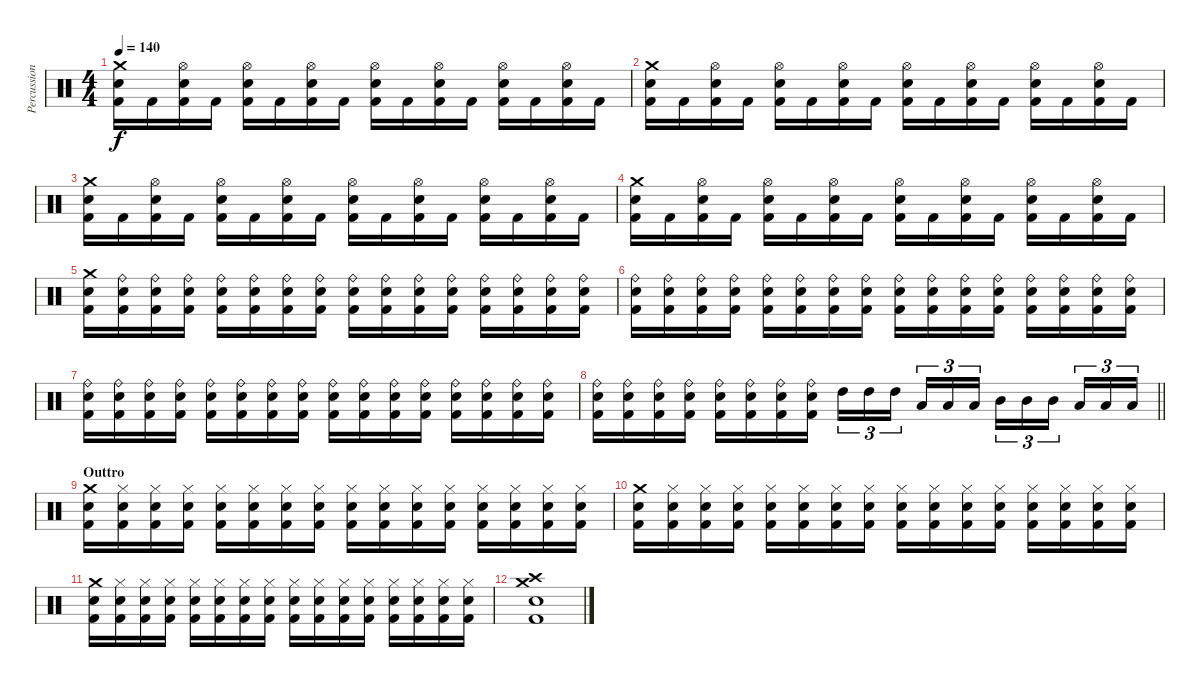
\track ("Percussion" "Percussion") {instrument percussion}
\staff {score}
\articulation defaults
\ts (4 4)
\tempo 140
\clef neutral
\ks c
("Crash medium (hit)" "Electric Snare (hit)" "Kick (hit) 2").16{dy f} "Kick (hit) 2".16 ("Hi-Hat (open)" "Electric Snare (hit)" "Kick (hit) 2").16 "Kick (hit) 2".16 ("Hi-Hat (open)" "Electric Snare (hit)" "Kick (hit) 2").16 "Kick (hit) 2".16 ("Hi-Hat (open)" "Electric Snare (hit)" "Kick (hit) 2").16 "Kick (hit) 2".16 ("Hi-Hat (open)" "Electric Snare (hit)" "Kick (hit) 2").16 "Kick (hit) 2".16 ("Hi-Hat (open)" "Electric Snare (hit)" "Kick (hit) 2").16 "Kick (hit) 2".16 ("Hi-Hat (open)" "Electric Snare (hit)" "Kick (hit) 2").16 "Kick (hit) 2".16 ("Hi-Hat (open)" "Electric Snare (hit)" "Kick (hit) 2").16 "Kick (hit) 2".16 |
("Crash medium (hit)" "Electric Snare (hit)" "Kick (hit) 2").16 "Kick (hit) 2".16 ("Hi-Hat (open)" "Electric Snare (hit)" "Kick (hit) 2").16 "Kick (hit) 2".16 ("Hi-Hat (open)" "Electric Snare (hit)" "Kick (hit) 2").16 "Kick (hit) 2".16 ("Hi-Hat (open)" "Electric Snare (hit)" "Kick (hit) 2").16 "Kick (hit) 2".16 ("Hi-Hat (open)" "Electric Snare (hit)" "Kick (hit) 2").16 "Kick (hit) 2".16 ("Hi-Hat (open)" "Electric Snare (hit)" "Kick (hit) 2").16 "Kick (hit) 2".16 ("Hi-Hat (open)" "Electric Snare (hit)" "Kick (hit) 2").16 "Kick (hit) 2".16 ("Hi-Hat (open)" "Electric Snare (hit)" "Kick (hit) 2").16 "Kick (hit) 2".16 |
("Crash medium (hit)" "Electric Snare (hit)" "Kick (hit) 2").16 "Kick (hit) 2".16 ("Hi-Hat (open)" "Electric Snare (hit)" "Kick (hit) 2").16 "Kick (hit) 2".16 ("Hi-Hat (open)" "Electric Snare (hit)" "Kick (hit) 2").16 "Kick (hit) 2".16 ("Hi-Hat (open)" "Electric Snare (hit)" "Kick (hit) 2").16 "Kick (hit) 2".16 ("Hi-Hat (open)" "Electric Snare (hit)" "Kick (hit) 2").16 "Kick (hit) 2".16 ("Hi-Hat (open)" "Electric Snare (hit)" "Kick (hit) 2").16 "Kick (hit) 2".16 ("Hi-Hat (open)" "Electric Snare (hit)" "Kick (hit) 2").16 "Kick (hit) 2".16 ("Hi-Hat (open)" "Electric Snare (hit)" "Kick (hit) 2").16 "Kick (hit) 2".16 |
("Crash medium (hit)" "Electric Snare (hit)" "Kick (hit) 2").16 "Kick (hit) 2".16 ("Hi-Hat (open)" "Electric Snare (hit)" "Kick (hit) 2").16 "Kick (hit) 2".16 ("Hi-Hat (open)" "Electric Snare (hit)" "Kick (hit) 2").16 "Kick (hit) 2".16 ("Hi-Hat (open)" "Electric Snare (hit)" "Kick (hit) 2").16 "Kick (hit) 2".16 ("Hi-Hat (open)" "Electric Snare (hit)" "Kick (hit) 2").16 "Kick (hit) 2".16 ("Hi-Hat (open)" "Electric Snare (hit)" "Kick (hit) 2").16 "Kick (hit) 2".16 ("Hi-Hat (open)" "Electric Snare (hit)" "Kick (hit) 2").16 "Kick (hit) 2".16 ("Hi-Hat (open)" "Electric Snare (hit)" "Kick (hit) 2").16 "Kick (hit) 2".16 |
("Crash medium (hit)" "Electric Snare (hit)" "Kick (hit) 2").16 ("Ride (bell)" "Electric Snare (hit)" "Kick (hit) 2").16 ("Ride (bell)" "Electric Snare (hit)" "Kick (hit) 2").16 ("Ride (bell)" "Electric Snare (hit)" "Kick (hit) 2").16 ("Ride (bell)" "Electric Snare (hit)" "Kick (hit) 2").16 ("Ride (bell)" "Electric Snare (hit)" "Kick (hit) 2").16 ("Ride (bell)" "Electric Snare (hit)" "Kick (hit) 2").16 ("Ride (bell)" "Electric Snare (hit)" "Kick (hit) 2").16 ("Ride (bell)" "Electric Snare (hit)" "Kick (hit) 2").16 ("Ride (bell)" "Electric Snare (hit)" "Kick (hit) 2").16 ("Ride (bell)" "Electric Snare (hit)" "Kick (hit) 2").16 ("Ride (bell)" "Electric Snare (hit)" "Kick (hit) 2").16 ("Ride (bell)" "Electric Snare (hit)" "Kick (hit) 2").16 ("Ride (bell)" "Electric Snare (hit)" "Kick (hit) 2").16 ("Ride (bell)" "Electric Snare (hit)" "Kick (hit) 2").16 ("Ride (bell)" "Electric Snare (hit)" "Kick (hit) 2").16 |
("Ride (bell)" "Electric Snare (hit)" "Kick (hit) 2").16 ("Ride (bell)" "Electric Snare (hit)" "Kick (hit) 2").16 ("Ride (bell)" "Electric Snare (hit)" "Kick (hit) 2").16 ("Ride (bell)" "Electric Snare (hit)" "Kick (hit) 2").16 ("Ride (bell)" "Electric Snare (hit)" "Kick (hit) 2").16 ("Ride (bell)" "Electric Snare (hit)" "Kick (hit) 2").16 ("Ride (bell)" "Electric Snare (hit)" "Kick (hit) 2").16 ("Ride (bell)" "Electric Snare (hit)" "Kick (hit) 2").16 ("Ride (bell)" "Electric Snare (hit)" "Kick (hit) 2").16 ("Ride (bell)" "Electric Snare (hit)" "Kick (hit) 2").16 ("Ride (bell)" "Electric Snare (hit)" "Kick (hit) 2").16 ("Ride (bell)" "Electric Snare (hit)" "Kick (hit) 2").16 ("Ride (bell)" "Electric Snare (hit)" "Kick (hit) 2").16 ("Ride (bell)" "Electric Snare (hit)" "Kick (hit) 2").16 ("Ride (bell)" "Electric Snare (hit)" "Kick (hit) 2").16 ("Ride (bell)" "Electric Snare (hit)" "Kick (hit) 2").16 |
("Ride (bell)" "Electric Snare (hit)" "Kick (hit) 2").16 ("Ride (bell)" "Electric Snare (hit)" "Kick (hit) 2").16 ("Ride (bell)" "Electric Snare (hit)" "Kick (hit) 2").16 ("Ride (bell)" "Electric Snare (hit)" "Kick (hit) 2").16 ("Ride (bell)" "Electric Snare (hit)" "Kick (hit) 2").16 ("Ride (bell)" "Electric Snare (hit)" "Kick (hit) 2").16 ("Ride (bell)" "Electric Snare (hit)" "Kick (hit) 2").16 ("Ride (bell)" "Electric Snare (hit)" "Kick (hit) 2").16 ("Ride (bell)" "Electric Snare (hit)" "Kick (hit) 2").16 ("Ride (bell)" "Electric Snare (hit)" "Kick (hit) 2").16 ("Ride (bell)" "Electric Snare (hit)" "Kick (hit) 2").16 ("Ride (bell)" "Electric Snare (hit)" "Kick (hit) 2").16 ("Ride (bell)" "Electric Snare (hit)" "Kick (hit) 2").16 ("Ride (bell)" "Electric Snare (hit)" "Kick (hit) 2").16 ("Ride (bell)" "Electric Snare (hit)" "Kick (hit) 2").16 ("Ride (bell)" "Electric Snare (hit)" "Kick (hit) 2").16 |
\barLineRight lightlight
("Ride (bell)" "Electric Snare (hit)" "Kick (hit) 2").16 ("Ride (bell)" "Electric Snare (hit)" "Kick (hit) 2").16 ("Ride (bell)" "Electric Snare (hit)" "Kick (hit) 2").16 ("Ride (bell)" "Electric Snare (hit)" "Kick (hit) 2").16 ("Ride (bell)" "Electric Snare (hit)" "Kick (hit) 2").16 ("Ride (bell)" "Electric Snare (hit)" "Kick (hit) 2").16 ("Ride (bell)" "Electric Snare (hit)" "Kick (hit) 2").16 ("Ride (bell)" "Electric Snare (hit)" "Kick (hit) 2").16 "High Tom (hit)".16{tu (3 2)} "High Tom (hit)".16{tu (3 2)} "High Tom (hit)".16{tu (3 2) beam splitsecondary} "Low Tom (hit)".16{tu (3 2)} "Low Tom (hit)".16{tu (3 2)} "Low Tom (hit)".16{tu (3 2)} "Mid Tom (hit)".16{tu (3 2)} "Mid Tom (hit)".16{tu (3 2)} "Mid Tom (hit)".16{tu (3 2) beam splitsecondary} "Low Floor Tom (hit)".16{tu (3 2)} "Low Floor Tom (hit)".16{tu (3 2)} "Low Floor Tom (hit)".16{tu (3 2)} |
\section ("" "Outtro")
("Crash medium (hit)" "Electric Snare (hit)" "Kick (hit) 2").16 ("Hi-Hat (closed)" "Electric Snare (hit)" "Kick (hit) 2").16 ("Hi-Hat (closed)" "Electric Snare (hit)" "Kick (hit) 2").16 ("Hi-Hat (closed)" "Electric Snare (hit)" "Kick (hit) 2").16 ("Hi-Hat (closed)" "Electric Snare (hit)" "Kick (hit) 2").16 ("Hi-Hat (closed)" "Electric Snare (hit)" "Kick (hit) 2").16 ("Hi-Hat (closed)" "Electric Snare (hit)" "Kick (hit) 2").16 ("Hi-Hat (closed)" "Electric Snare (hit)" "Kick (hit) 2").16 ("Hi-Hat (closed)" "Electric Snare (hit)" "Kick (hit) 2").16 ("Hi-Hat (closed)" "Electric Snare (hit)" "Kick (hit) 2").16 ("Hi-Hat (closed)" "Electric Snare (hit)" "Kick (hit) 2").16 ("Hi-Hat (closed)" "Electric Snare (hit)" "Kick (hit) 2").16 ("Hi-Hat (closed)" "Electric Snare (hit)" "Kick (hit) 2").16 ("Hi-Hat (closed)" "Electric Snare (hit)" "Kick (hit) 2").16 ("Hi-Hat (closed)" "Electric Snare (hit)" "Kick (hit) 2").16 ("Hi-Hat (closed)" "Electric Snare (hit)" "Kick (hit) 2").16 |
("Crash medium (hit)" "Electric Snare (hit)" "Kick (hit) 2").16 ("Hi-Hat (closed)" "Electric Snare (hit)" "Kick (hit) 2").16 ("Hi-Hat (closed)" "Electric Snare (hit)" "Kick (hit) 2").16 ("Hi-Hat (closed)" "Electric Snare (hit)" "Kick (hit) 2").16 ("Hi-Hat (closed)" "Electric Snare (hit)" "Kick (hit) 2").16 ("Hi-Hat (closed)" "Electric Snare (hit)" "Kick (hit) 2").16 ("Hi-Hat (closed)" "Electric Snare (hit)" "Kick (hit) 2").16 ("Hi-Hat (closed)" "Electric Snare (hit)" "Kick (hit) 2").16 ("Hi-Hat (closed)" "Electric Snare (hit)" "Kick (hit) 2").16 ("Hi-Hat (closed)" "Electric Snare (hit)" "Kick (hit) 2").16 ("Hi-Hat (closed)" "Electric Snare (hit)" "Kick (hit) 2").16 ("Hi-Hat (closed)" "Electric Snare (hit)" "Kick (hit) 2").16 ("Hi-Hat (closed)" "Electric Snare (hit)" "Kick (hit) 2").16 ("Hi-Hat (closed)" "Electric Snare (hit)" "Kick (hit) 2").16 ("Hi-Hat (closed)" "Electric Snare (hit)" "Kick (hit) 2").16 ("Hi-Hat (closed)" "Electric Snare (hit)" "Kick (hit) 2").16 |
("Crash medium (hit)" "Electric Snare (hit)" "Kick (hit) 2").16 ("Hi-Hat (closed)" "Electric Snare (hit)" "Kick (hit) 2").16 ("Hi-Hat (closed)" "Electric Snare (hit)" "Kick (hit) 2").16 ("Hi-Hat (closed)" "Electric Snare (hit)" "Kick (hit) 2").16 ("Hi-Hat (closed)" "Electric Snare (hit)" "Kick (hit) 2").16 ("Hi-Hat (closed)" "Electric Snare (hit)" "Kick (hit) 2").16 ("Hi-Hat (closed)" "Electric Snare (hit)" "Kick (hit) 2").16 ("Hi-Hat (closed)" "Electric Snare (hit)" "Kick (hit) 2").16 ("Hi-Hat (closed)" "Electric Snare (hit)" "Kick (hit) 2").16 ("Hi-Hat (closed)" "Electric Snare (hit)" "Kick (hit) 2").16 ("Hi-Hat (closed)" "Electric Snare (hit)" "Kick (hit) 2").16 ("Hi-Hat (closed)" "Electric Snare (hit)" "Kick (hit) 2").16 ("Hi-Hat (closed)" "Electric Snare (hit)" "Kick (hit) 2").16 ("Hi-Hat (closed)" "Electric Snare (hit)" "Kick (hit) 2").16 ("Hi-Hat (closed)" "Electric Snare (hit)" "Kick (hit) 2").16 ("Hi-Hat (closed)" "Electric Snare (hit)" "Kick (hit) 2").16 |
("Crash high (hit)" "Crash medium (hit)" "Electric Snare (hit)" "Kick (hit) 2").1
